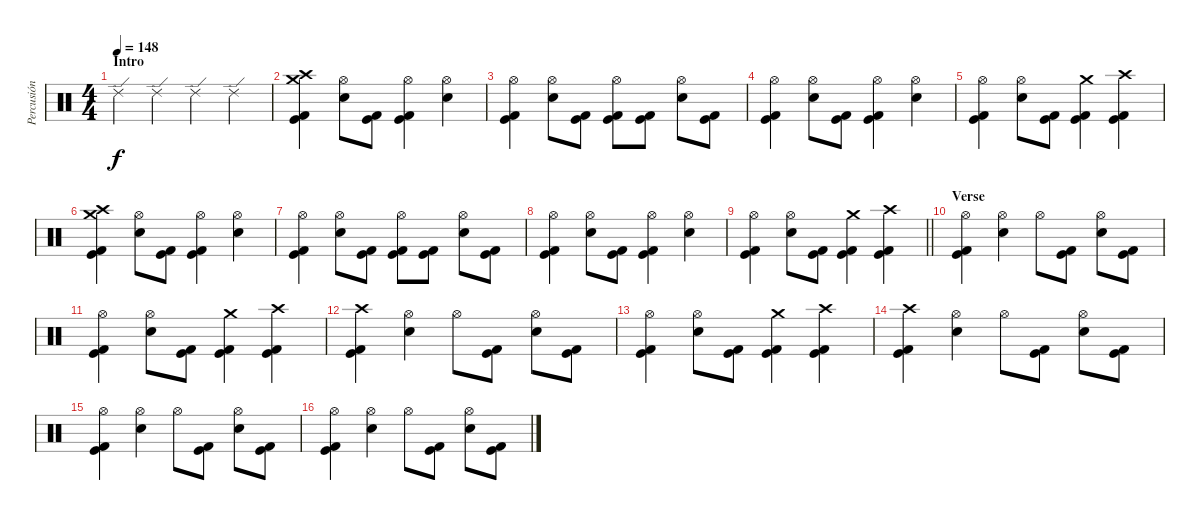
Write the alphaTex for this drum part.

\track ("Percusión" "Percusión") {instrument percussion}
\staff {score}
\articulation defaults
\ts (4 4)
\section ("" "Intro")
\tempo 148
\clef neutral
\ks c "Ride (edge) 2".4{dy f} "Ride (edge) 2".4 "Ride (edge) 2".4 "Ride (edge) 2".4
|
("Crash high (hit)" "Crash medium (hit)" "Kick (hit)" "Kick (hit) 2").4 ("Hi-Hat (open)" "Electric Snare (hit)").8 ("Kick (hit)" "Kick (hit) 2").8 ("Hi-Hat (open)" "Kick (hit)" "Kick (hit) 2").4 ("Hi-Hat (open)" "Electric Snare (hit)").4 |
("Hi-Hat (open)" "Kick (hit)" "Kick (hit) 2").4 ("Hi-Hat (open)" "Electric Snare (hit)").8 ("Kick (hit)" "Kick (hit) 2").8 ("Hi-Hat (open)" "Kick (hit)" "Kick (hit) 2").8 ("Kick (hit)" "Kick (hit) 2").8 ("Hi-Hat (open)" "Electric Snare (hit)").8 ("Kick (hit)" "Kick (hit) 2").8 |
("Hi-Hat (open)" "Kick (hit)" "Kick (hit) 2").4 ("Hi-Hat (open)" "Electric Snare (hit)").8 ("Kick (hit)" "Kick (hit) 2").8 ("Hi-Hat (open)" "Kick (hit)" "Kick (hit) 2").4 ("Hi-Hat (open)" "Electric Snare (hit)").4 |
("Hi-Hat (open)" "Kick (hit)" "Kick (hit) 2").4 ("Hi-Hat (open)" "Electric Snare (hit)").8 ("Kick (hit)" "Kick (hit) 2").8 ("Crash medium (hit)" "Kick (hit)" "Kick (hit) 2").4 ("Crash high (hit)" "Kick (hit)" "Kick (hit) 2").4 |
("Crash high (hit)" "Crash medium (hit)" "Kick (hit)" "Kick (hit) 2").4 ("Hi-Hat (open)" "Electric Snare (hit)").8 ("Kick (hit)" "Kick (hit) 2").8 ("Hi-Hat (open)" "Kick (hit)" "Kick (hit) 2").4 ("Hi-Hat (open)" "Electric Snare (hit)").4 |
("Hi-Hat (open)" "Kick (hit)" "Kick (hit) 2").4 ("Hi-Hat (open)" "Electric Snare (hit)").8 ("Kick (hit)" "Kick (hit) 2").8 ("Hi-Hat (open)" "Kick (hit)" "Kick (hit) 2").8 ("Kick (hit)" "Kick (hit) 2").8 ("Hi-Hat (open)" "Electric Snare (hit)").8 ("Kick (hit)" "Kick (hit) 2").8 |
("Hi-Hat (open)" "Kick (hit)" "Kick (hit) 2").4 ("Hi-Hat (open)" "Electric Snare (hit)").8 ("Kick (hit)" "Kick (hit) 2").8 ("Hi-Hat (open)" "Kick (hit)" "Kick (hit) 2").4 ("Hi-Hat (open)" "Electric Snare (hit)").4 |
\barLineRight lightlight
("Hi-Hat (open)" "Kick (hit)" "Kick (hit) 2").4 ("Hi-Hat (open)" "Electric Snare (hit)").8 ("Kick (hit)" "Kick (hit) 2").8 ("Crash medium (hit)" "Kick (hit)" "Kick (hit) 2").4 ("Crash high (hit)" "Kick (hit)" "Kick (hit) 2").4 |
\section ("" "Verse")
("Hi-Hat (open)" "Kick (hit)" "Kick (hit) 2").4 ("Hi-Hat (open)" "Electric Snare (hit)").4 "Hi-Hat (open)".8 ("Kick (hit)" "Kick (hit) 2").8 ("Hi-Hat (open)" "Electric Snare (hit)").8 ("Kick (hit)" "Kick (hit) 2").8 |
("Hi-Hat (open)" "Kick (hit)" "Kick (hit) 2").4 ("Hi-Hat (open)" "Electric Snare (hit)").8 ("Kick (hit)" "Kick (hit) 2").8 ("Crash medium (hit)" "Kick (hit)" "Kick (hit) 2").4 ("Crash high (hit)" "Kick (hit)" "Kick (hit) 2").4 |
("Crash high (hit)" "Kick (hit)" "Kick (hit) 2").4 ("Hi-Hat (open)" "Electric Snare (hit)").4 "Hi-Hat (open)".8 ("Kick (hit)" "Kick (hit) 2").8 ("Hi-Hat (open)" "Electric Snare (hit)").8 ("Kick (hit)" "Kick (hit) 2").8 |
("Hi-Hat (open)" "Kick (hit)" "Kick (hit) 2").4 ("Hi-Hat (open)" "Electric Snare (hit)").8 ("Kick (hit)" "Kick (hit) 2").8 ("Crash medium (hit)" "Kick (hit)" "Kick (hit) 2").4 ("Crash high (hit)" "Kick (hit)" "Kick (hit) 2").4 |
("Crash high (hit)" "Kick (hit)" "Kick (hit) 2").4 ("Hi-Hat (open)" "Electric Snare (hit)").4 "Hi-Hat (open)".8 ("Kick (hit)" "Kick (hit) 2").8 ("Hi-Hat (open)" "Electric Snare (hit)").8 ("Kick (hit)" "Kick (hit) 2").8 |
("Hi-Hat (open)" "Kick (hit)" "Kick (hit) 2").4 ("Hi-Hat (open)" "Electric Snare (hit)").4 "Hi-Hat (open)".8 ("Kick (hit)" "Kick (hit) 2").8 ("Hi-Hat (open)" "Electric Snare (hit)").8 ("Kick (hit)" "Kick (hit) 2").8 |
("Hi-Hat (open)" "Kick (hit)" "Kick (hit) 2").4 ("Hi-Hat (open)" "Electric Snare (hit)").4 "Hi-Hat (open)".8 ("Kick (hit)" "Kick (hit) 2").8 ("Hi-Hat (open)" "Electric Snare (hit)").8 ("Kick (hit)" "Kick (hit) 2").8
